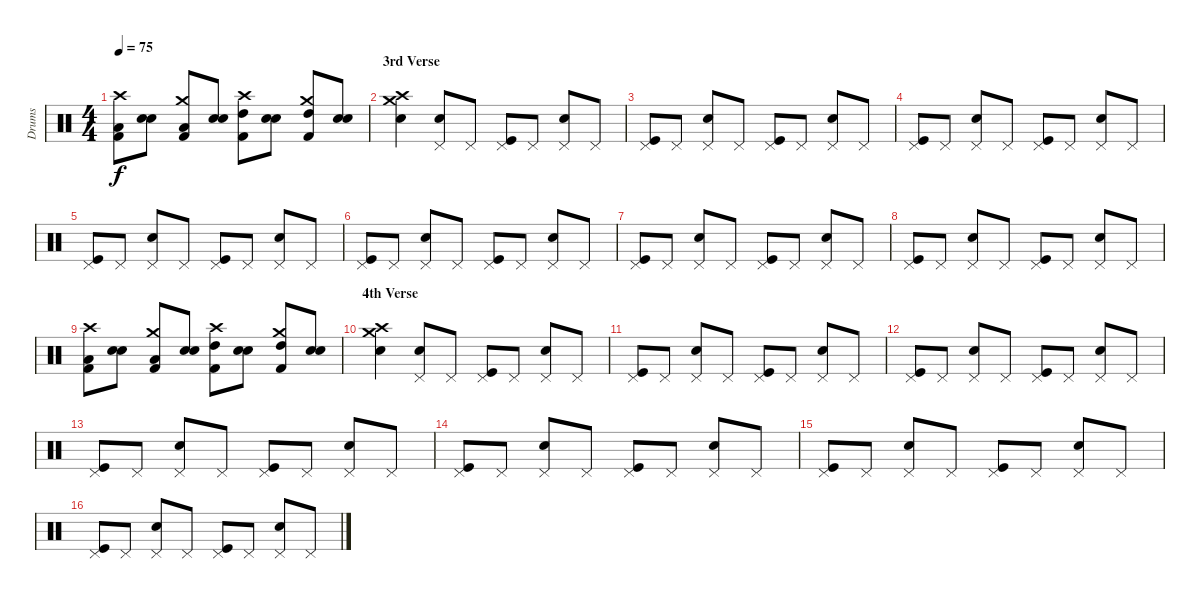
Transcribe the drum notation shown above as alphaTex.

\track ("Drums" "Drums") {instrument percussion}
\staff {score}
\articulation defaults
\ts (4 4)
\tempo 75
\clef neutral
\ks c
("Crash high (hit)" "Kick (hit) 2" "Low Floor Tom (hit)").8{dy f} ("Snare (hit) 2" "Snare (hit) 2").8 ("Crash medium (hit)" "Kick (hit) 2" "Low Tom (hit)").8 ("Snare (hit) 2" "Snare (hit) 2").8 ("Crash high (hit)" "Kick (hit) 2" "High Tom (hit)").8 ("Snare (hit) 2" "Snare (hit) 2").8 ("Crash medium (hit)" "Kick (hit) 2" "High Tom (hit)").8 ("Snare (hit) 2" "Snare (hit) 2").8 |
\section ("" "3rd Verse")
("Crash medium (hit)" "Crash high (hit)" "Snare (hit) 2").4 ("Pedal Hi-Hat (hit)" "Snare (hit) 2").8 "Pedal Hi-Hat (hit)".8 ("Pedal Hi-Hat (hit)" "Kick (hit)").8 "Pedal Hi-Hat (hit)".8 ("Pedal Hi-Hat (hit)" "Snare (hit) 2").8 "Pedal Hi-Hat (hit)".8 |
("Pedal Hi-Hat (hit)" "Kick (hit)").8 "Pedal Hi-Hat (hit)".8 ("Pedal Hi-Hat (hit)" "Snare (hit) 2").8 "Pedal Hi-Hat (hit)".8 ("Pedal Hi-Hat (hit)" "Kick (hit)").8 "Pedal Hi-Hat (hit)".8 ("Pedal Hi-Hat (hit)" "Snare (hit) 2").8 "Pedal Hi-Hat (hit)".8 |
("Pedal Hi-Hat (hit)" "Kick (hit)").8 "Pedal Hi-Hat (hit)".8 ("Pedal Hi-Hat (hit)" "Snare (hit) 2").8 "Pedal Hi-Hat (hit)".8 ("Pedal Hi-Hat (hit)" "Kick (hit)").8 "Pedal Hi-Hat (hit)".8 ("Pedal Hi-Hat (hit)" "Snare (hit) 2").8 "Pedal Hi-Hat (hit)".8 |
("Pedal Hi-Hat (hit)" "Kick (hit)").8 "Pedal Hi-Hat (hit)".8 ("Pedal Hi-Hat (hit)" "Snare (hit) 2").8 "Pedal Hi-Hat (hit)".8 ("Pedal Hi-Hat (hit)" "Kick (hit)").8 "Pedal Hi-Hat (hit)".8 ("Pedal Hi-Hat (hit)" "Snare (hit) 2").8 "Pedal Hi-Hat (hit)".8 |
("Pedal Hi-Hat (hit)" "Kick (hit)").8 "Pedal Hi-Hat (hit)".8 ("Pedal Hi-Hat (hit)" "Snare (hit) 2").8 "Pedal Hi-Hat (hit)".8 ("Pedal Hi-Hat (hit)" "Kick (hit)").8 "Pedal Hi-Hat (hit)".8 ("Pedal Hi-Hat (hit)" "Snare (hit) 2").8 "Pedal Hi-Hat (hit)".8 |
("Pedal Hi-Hat (hit)" "Kick (hit)").8 "Pedal Hi-Hat (hit)".8 ("Pedal Hi-Hat (hit)" "Snare (hit) 2").8 "Pedal Hi-Hat (hit)".8 ("Pedal Hi-Hat (hit)" "Kick (hit)").8 "Pedal Hi-Hat (hit)".8 ("Pedal Hi-Hat (hit)" "Snare (hit) 2").8 "Pedal Hi-Hat (hit)".8 |
("Pedal Hi-Hat (hit)" "Kick (hit)").8 "Pedal Hi-Hat (hit)".8 ("Pedal Hi-Hat (hit)" "Snare (hit) 2").8 "Pedal Hi-Hat (hit)".8 ("Pedal Hi-Hat (hit)" "Kick (hit)").8 "Pedal Hi-Hat (hit)".8 ("Pedal Hi-Hat (hit)" "Snare (hit) 2").8 "Pedal Hi-Hat (hit)".8 |
("Crash high (hit)" "Kick (hit) 2" "Low Floor Tom (hit)").8 ("Snare (hit) 2" "Snare (hit) 2").8 ("Crash medium (hit)" "Kick (hit) 2" "Low Tom (hit)").8 ("Snare (hit) 2" "Snare (hit) 2").8 ("Crash high (hit)" "Kick (hit) 2" "High Tom (hit)").8 ("Snare (hit) 2" "Snare (hit) 2").8 ("Crash medium (hit)" "Kick (hit) 2" "High Tom (hit)").8 ("Snare (hit) 2" "Snare (hit) 2").8 |
\section ("" "4th Verse")
("Crash medium (hit)" "Crash high (hit)" "Snare (hit) 2").4 ("Pedal Hi-Hat (hit)" "Snare (hit) 2").8 "Pedal Hi-Hat (hit)".8 ("Pedal Hi-Hat (hit)" "Kick (hit)").8 "Pedal Hi-Hat (hit)".8 ("Pedal Hi-Hat (hit)" "Snare (hit) 2").8 "Pedal Hi-Hat (hit)".8 |
("Pedal Hi-Hat (hit)" "Kick (hit)").8 "Pedal Hi-Hat (hit)".8 ("Pedal Hi-Hat (hit)" "Snare (hit) 2").8 "Pedal Hi-Hat (hit)".8 ("Pedal Hi-Hat (hit)" "Kick (hit)").8 "Pedal Hi-Hat (hit)".8 ("Pedal Hi-Hat (hit)" "Snare (hit) 2").8 "Pedal Hi-Hat (hit)".8 |
("Pedal Hi-Hat (hit)" "Kick (hit)").8 "Pedal Hi-Hat (hit)".8 ("Pedal Hi-Hat (hit)" "Snare (hit) 2").8 "Pedal Hi-Hat (hit)".8 ("Pedal Hi-Hat (hit)" "Kick (hit)").8 "Pedal Hi-Hat (hit)".8 ("Pedal Hi-Hat (hit)" "Snare (hit) 2").8 "Pedal Hi-Hat (hit)".8 |
("Pedal Hi-Hat (hit)" "Kick (hit)").8 "Pedal Hi-Hat (hit)".8 ("Pedal Hi-Hat (hit)" "Snare (hit) 2").8 "Pedal Hi-Hat (hit)".8 ("Pedal Hi-Hat (hit)" "Kick (hit)").8 "Pedal Hi-Hat (hit)".8 ("Pedal Hi-Hat (hit)" "Snare (hit) 2").8 "Pedal Hi-Hat (hit)".8 |
("Pedal Hi-Hat (hit)" "Kick (hit)").8 "Pedal Hi-Hat (hit)".8 ("Pedal Hi-Hat (hit)" "Snare (hit) 2").8 "Pedal Hi-Hat (hit)".8 ("Pedal Hi-Hat (hit)" "Kick (hit)").8 "Pedal Hi-Hat (hit)".8 ("Pedal Hi-Hat (hit)" "Snare (hit) 2").8 "Pedal Hi-Hat (hit)".8 |
("Pedal Hi-Hat (hit)" "Kick (hit)").8 "Pedal Hi-Hat (hit)".8 ("Pedal Hi-Hat (hit)" "Snare (hit) 2").8 "Pedal Hi-Hat (hit)".8 ("Pedal Hi-Hat (hit)" "Kick (hit)").8 "Pedal Hi-Hat (hit)".8 ("Pedal Hi-Hat (hit)" "Snare (hit) 2").8 "Pedal Hi-Hat (hit)".8 |
("Pedal Hi-Hat (hit)" "Kick (hit)").8 "Pedal Hi-Hat (hit)".8 ("Pedal Hi-Hat (hit)" "Snare (hit) 2").8 "Pedal Hi-Hat (hit)".8 ("Pedal Hi-Hat (hit)" "Kick (hit)").8 "Pedal Hi-Hat (hit)".8 ("Pedal Hi-Hat (hit)" "Snare (hit) 2").8 "Pedal Hi-Hat (hit)".8
